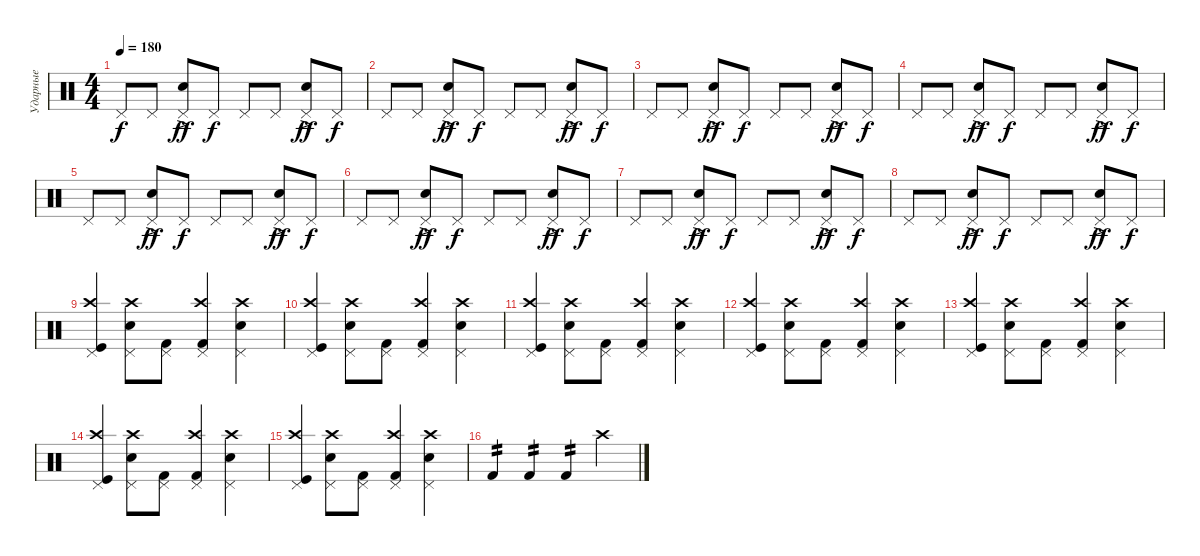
\track ("Ударные" "Ударные") {instrument percussion}
\staff {score}
\articulation defaults
\ts (4 4)
\tempo 180
\clef neutral
\ks c "Pedal Hi-Hat (hit)".8{dy f} "Pedal Hi-Hat (hit)".8
("Pedal Hi-Hat (hit)"{ac} "Electric Snare (hit)").8{dy ff} "Pedal Hi-Hat (hit)".8{dy f} "Pedal Hi-Hat (hit)".8 "Pedal Hi-Hat (hit)".8 ("Pedal Hi-Hat (hit)"{ac} "Electric Snare (hit)").8{dy ff} "Pedal Hi-Hat (hit)".8{dy f} |
"Pedal Hi-Hat (hit)".8 "Pedal Hi-Hat (hit)".8 ("Pedal Hi-Hat (hit)"{ac} "Electric Snare (hit)").8{dy ff} "Pedal Hi-Hat (hit)".8{dy f} "Pedal Hi-Hat (hit)".8 "Pedal Hi-Hat (hit)".8 ("Pedal Hi-Hat (hit)"{ac} "Electric Snare (hit)").8{dy ff} "Pedal Hi-Hat (hit)".8{dy f} |
"Pedal Hi-Hat (hit)".8 "Pedal Hi-Hat (hit)".8 ("Pedal Hi-Hat (hit)"{ac} "Electric Snare (hit)").8{dy ff} "Pedal Hi-Hat (hit)".8{dy f} "Pedal Hi-Hat (hit)".8 "Pedal Hi-Hat (hit)".8 ("Pedal Hi-Hat (hit)"{ac} "Electric Snare (hit)").8{dy ff} "Pedal Hi-Hat (hit)".8{dy f} |
"Pedal Hi-Hat (hit)".8 "Pedal Hi-Hat (hit)".8 ("Pedal Hi-Hat (hit)"{ac} "Electric Snare (hit)").8{dy ff} "Pedal Hi-Hat (hit)".8{dy f} "Pedal Hi-Hat (hit)".8 "Pedal Hi-Hat (hit)".8 ("Pedal Hi-Hat (hit)"{ac} "Electric Snare (hit)").8{dy ff} "Pedal Hi-Hat (hit)".8{dy f} |
"Pedal Hi-Hat (hit)".8 "Pedal Hi-Hat (hit)".8 ("Pedal Hi-Hat (hit)"{ac} "Electric Snare (hit)").8{dy ff} "Pedal Hi-Hat (hit)".8{dy f} "Pedal Hi-Hat (hit)".8 "Pedal Hi-Hat (hit)".8 ("Pedal Hi-Hat (hit)"{ac} "Electric Snare (hit)").8{dy ff} "Pedal Hi-Hat (hit)".8{dy f} |
"Pedal Hi-Hat (hit)".8 "Pedal Hi-Hat (hit)".8 ("Pedal Hi-Hat (hit)"{ac} "Electric Snare (hit)").8{dy ff} "Pedal Hi-Hat (hit)".8{dy f} "Pedal Hi-Hat (hit)".8 "Pedal Hi-Hat (hit)".8 ("Pedal Hi-Hat (hit)"{ac} "Electric Snare (hit)").8{dy ff} "Pedal Hi-Hat (hit)".8{dy f} |
"Pedal Hi-Hat (hit)".8 "Pedal Hi-Hat (hit)".8 ("Pedal Hi-Hat (hit)"{ac} "Electric Snare (hit)").8{dy ff} "Pedal Hi-Hat (hit)".8{dy f} "Pedal Hi-Hat (hit)".8 "Pedal Hi-Hat (hit)".8 ("Pedal Hi-Hat (hit)"{ac} "Electric Snare (hit)").8{dy ff} "Pedal Hi-Hat (hit)".8{dy f} |
"Pedal Hi-Hat (hit)".8 "Pedal Hi-Hat (hit)".8 ("Pedal Hi-Hat (hit)"{ac} "Electric Snare (hit)").8{dy ff} "Pedal Hi-Hat (hit)".8{dy f} "Pedal Hi-Hat (hit)".8 "Pedal Hi-Hat (hit)".8 ("Pedal Hi-Hat (hit)"{ac} "Electric Snare (hit)").8{dy ff} "Pedal Hi-Hat (hit)".8{dy f} |
("Crash high (hit)" "Pedal Hi-Hat (hit)" "Kick (hit)").4 ("Crash high (hit)" "Pedal Hi-Hat (hit)" "Electric Snare (hit)").8 ("Pedal Hi-Hat (hit)" "Kick (hit) 2").8 ("Crash high (hit)" "Pedal Hi-Hat (hit)" "Kick (hit) 2").4 ("Crash high (hit)" "Pedal Hi-Hat (hit)" "Electric Snare (hit)").4 |
("Crash high (hit)" "Pedal Hi-Hat (hit)" "Kick (hit)").4 ("Crash high (hit)" "Pedal Hi-Hat (hit)" "Electric Snare (hit)").8 ("Pedal Hi-Hat (hit)" "Kick (hit) 2").8 ("Crash high (hit)" "Pedal Hi-Hat (hit)" "Kick (hit) 2").4 ("Crash high (hit)" "Pedal Hi-Hat (hit)" "Electric Snare (hit)").4 |
("Crash high (hit)" "Pedal Hi-Hat (hit)" "Kick (hit)").4 ("Crash high (hit)" "Pedal Hi-Hat (hit)" "Electric Snare (hit)").8 ("Pedal Hi-Hat (hit)" "Kick (hit) 2").8 ("Crash high (hit)" "Pedal Hi-Hat (hit)" "Kick (hit) 2").4 ("Crash high (hit)" "Pedal Hi-Hat (hit)" "Electric Snare (hit)").4 |
("Crash high (hit)" "Pedal Hi-Hat (hit)" "Kick (hit)").4 ("Crash high (hit)" "Pedal Hi-Hat (hit)" "Electric Snare (hit)").8 ("Pedal Hi-Hat (hit)" "Kick (hit) 2").8 ("Crash high (hit)" "Pedal Hi-Hat (hit)" "Kick (hit) 2").4 ("Crash high (hit)" "Pedal Hi-Hat (hit)" "Electric Snare (hit)").4 |
("Crash high (hit)" "Pedal Hi-Hat (hit)" "Kick (hit)").4 ("Crash high (hit)" "Pedal Hi-Hat (hit)" "Electric Snare (hit)").8 ("Pedal Hi-Hat (hit)" "Kick (hit) 2").8 ("Crash high (hit)" "Pedal Hi-Hat (hit)" "Kick (hit) 2").4 ("Crash high (hit)" "Pedal Hi-Hat (hit)" "Electric Snare (hit)").4 |
("Crash high (hit)" "Pedal Hi-Hat (hit)" "Kick (hit)").4 ("Crash high (hit)" "Pedal Hi-Hat (hit)" "Electric Snare (hit)").8 ("Pedal Hi-Hat (hit)" "Kick (hit) 2").8 ("Crash high (hit)" "Pedal Hi-Hat (hit)" "Kick (hit) 2").4 ("Crash high (hit)" "Pedal Hi-Hat (hit)" "Electric Snare (hit)").4 |
("Crash high (hit)" "Pedal Hi-Hat (hit)" "Kick (hit)").4 ("Crash high (hit)" "Pedal Hi-Hat (hit)" "Electric Snare (hit)").8 ("Pedal Hi-Hat (hit)" "Kick (hit) 2").8 ("Crash high (hit)" "Pedal Hi-Hat (hit)" "Kick (hit) 2").4 ("Crash high (hit)" "Pedal Hi-Hat (hit)" "Electric Snare (hit)").4 |
"Kick (hit) 2".4{tp 2} "Kick (hit) 2".4{tp 2} "Kick (hit) 2".4{tp 2} "Crash high (hit)".4
